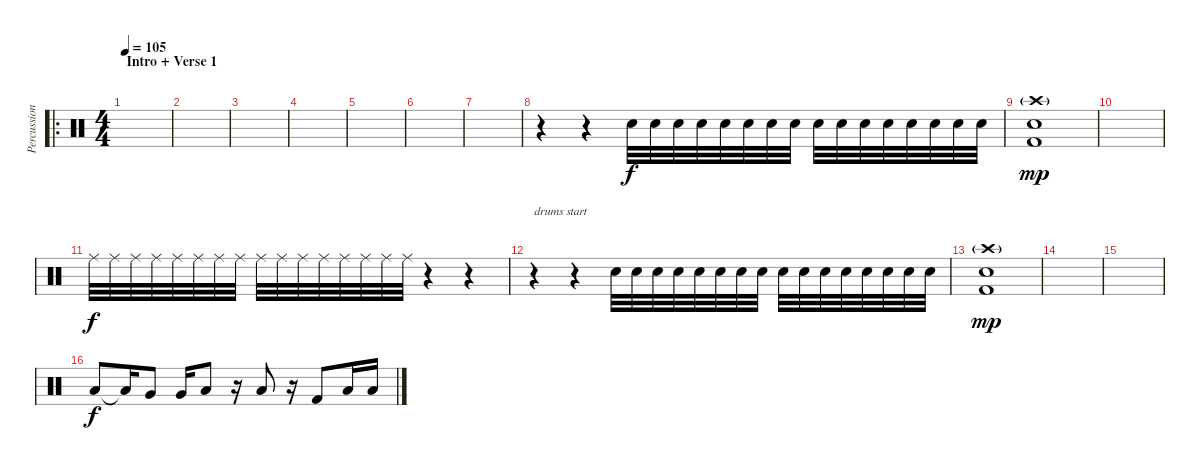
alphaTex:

\track ("Percussion" "Percussion") {instrument percussion}
\staff {score}
\articulation defaults
\ro
\ts (4 4)
\section ("" "Intro + Verse 1")
\tempo 105
\clef neutral
\ks c
|
|
|
|
|
|
|
r.4 r.4 "Snare (hit) 2".32{volume 3} "Snare (hit) 2".32 "Snare (hit) 2".32 "Snare (hit) 2".32 "Snare (hit) 2".32{volume 5} "Snare (hit) 2".32 "Snare (hit) 2".32 "Snare (hit) 2".32 "Snare (hit) 2".32{volume 7} "Snare (hit) 2".32 "Snare (hit) 2".32 "Snare (hit) 2".32{volume 10} "Snare (hit) 2".32 "Snare (hit) 2".32 "Snare (hit) 2".32{volume 16} "Snare (hit) 2".32 |
("Crash high (hit)"{g} "Snare (hit) 2" "Kick (hit) 2").1{dy mp} |
|
"Ride (middle)".32{dy f volume 3 balance 8} "Ride (middle)".32 "Ride (middle)".32 "Ride (middle)".32 "Ride (middle)".32{volume 5} "Ride (middle)".32 "Ride (middle)".32 "Ride (middle)".32 "Ride (middle)".32{volume 8} "Ride (middle)".32 "Ride (middle)".32 "Ride (middle)".32 "Ride (middle)".32 "Ride (middle)".32{volume 9} "Ride (middle)".32 "Ride (middle)".32 r.4 r.4 |
r.4{txt "drums start"} r.4 "Electric Snare (hit)".32{volume 3} "Electric Snare (hit)".32 "Electric Snare (hit)".32 "Electric Snare (hit)".32 "Electric Snare (hit)".32{volume 5} "Electric Snare (hit)".32 "Electric Snare (hit)".32 "Electric Snare (hit)".32 "Electric Snare (hit)".32{volume 8} "Electric Snare (hit)".32 "Electric Snare (hit)".32 "Electric Snare (hit)".32{volume 11} "Electric Snare (hit)".32 "Electric Snare (hit)".32 "Electric Snare (hit)".32{volume 16} "Electric Snare (hit)".32 |
("Crash high (hit)"{g} "Snare (hit) 2" "Kick (hit) 2").1{dy mp} |
|
|
"Low Floor Tom (hit)".8{dy f balance 15} "Low Tom (hit)"{t}.16 "Very Low Tom (hit)".8{balance 14} "Very Low Tom (hit)".16{balance 0} "Low Tom (hit)".8{balance 4} r.16 "Low Floor Tom (hit)".8{balance 8} r.16 "Kick (hit) 2".8 "Low Tom (hit)".16{balance 16} "Low Tom (hit)".16
